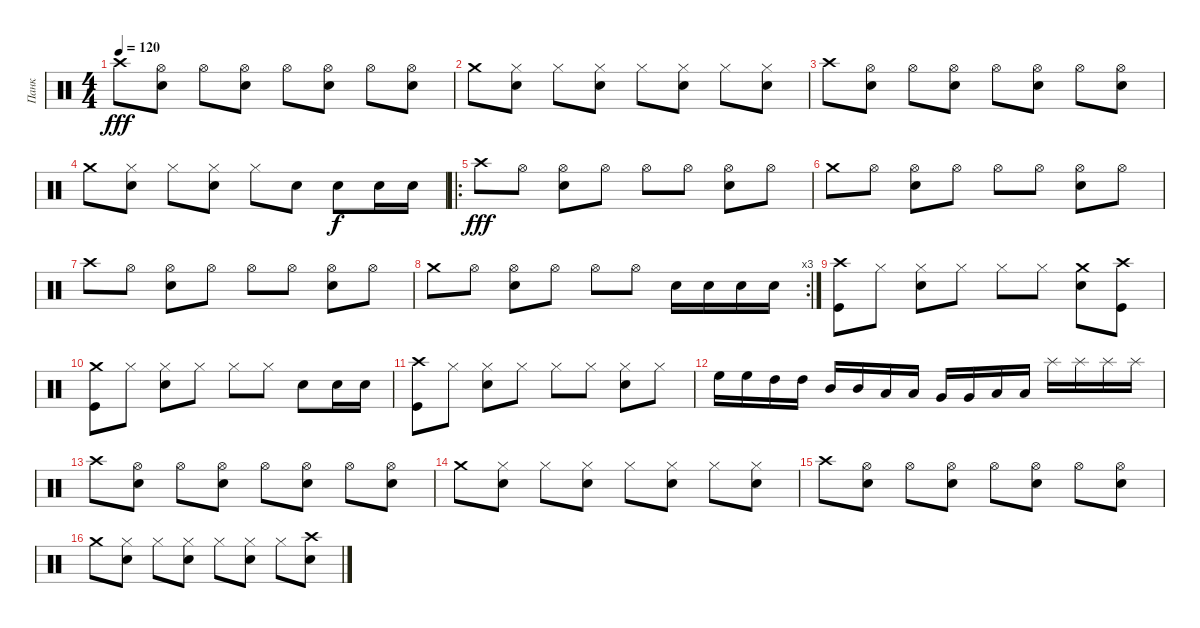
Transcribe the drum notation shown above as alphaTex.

\track ("Панк" "Панк") {instrument percussion}
\staff {score}
\articulation defaults
\ts (4 4)
\tempo 120
\clef neutral
\ks c "Crash high (hit)".8{dy fff}
("Hi-Hat (open)" "Electric Snare (hit)").8 "Hi-Hat (open)".8 ("Hi-Hat (open)" "Electric Snare (hit)").8 "Hi-Hat (open)".8 ("Hi-Hat (open)" "Electric Snare (hit)").8 "Hi-Hat (open)".8 ("Hi-Hat (open)" "Electric Snare (hit)").8 |
"Crash medium (hit)".8 ("Hi-Hat (closed)" "Electric Snare (hit)").8 "Hi-Hat (closed)".8 ("Hi-Hat (closed)" "Electric Snare (hit)").8 "Hi-Hat (closed)".8 ("Hi-Hat (closed)" "Electric Snare (hit)").8 "Hi-Hat (closed)".8 ("Hi-Hat (closed)" "Electric Snare (hit)").8 |
"Crash high (hit)".8 ("Hi-Hat (open)" "Electric Snare (hit)").8 "Hi-Hat (open)".8 ("Hi-Hat (open)" "Electric Snare (hit)").8 "Hi-Hat (open)".8 ("Hi-Hat (open)" "Electric Snare (hit)").8 "Hi-Hat (open)".8 ("Hi-Hat (open)" "Electric Snare (hit)").8 |
"Crash medium (hit)".8 ("Hi-Hat (closed)" "Electric Snare (hit)").8 "Hi-Hat (closed)".8 ("Hi-Hat (closed)" "Electric Snare (hit)").8 "Hi-Hat (closed)".8 "Electric Snare (hit)".8 "Electric Snare (hit)".8{dy f} "Electric Snare (hit)".16 "Electric Snare (hit)".16 |
\ro "Crash high (hit)".8{dy fff} "Hi-Hat (open)".8
("Hi-Hat (open)" "Electric Snare (hit)").8 "Hi-Hat (open)".8 "Hi-Hat (open)".8 "Hi-Hat (open)".8 ("Hi-Hat (open)" "Electric Snare (hit)").8 "Hi-Hat (open)".8 |
"Crash medium (hit)".8 "Hi-Hat (open)".8 ("Hi-Hat (open)" "Electric Snare (hit)").8 "Hi-Hat (open)".8 "Hi-Hat (open)".8 "Hi-Hat (open)".8 ("Hi-Hat (open)" "Electric Snare (hit)").8 "Hi-Hat (open)".8 |
"Crash high (hit)".8 "Hi-Hat (open)".8 ("Hi-Hat (open)" "Electric Snare (hit)").8 "Hi-Hat (open)".8 "Hi-Hat (open)".8 "Hi-Hat (open)".8 ("Hi-Hat (open)" "Electric Snare (hit)").8 "Hi-Hat (open)".8 |
\rc 3 "Crash medium (hit)".8 "Hi-Hat (open)".8
("Hi-Hat (open)" "Electric Snare (hit)").8 "Hi-Hat (open)".8 "Hi-Hat (open)".8 "Hi-Hat (open)".8 "Electric Snare (hit)".16 "Electric Snare (hit)".16 "Electric Snare (hit)".16 "Electric Snare (hit)".16 |
("Crash high (hit)" "Kick (hit)").8 "Hi-Hat (closed)".8 ("Hi-Hat (closed)" "Electric Snare (hit)").8 "Hi-Hat (closed)".8 "Hi-Hat (closed)".8 "Hi-Hat (closed)".8 ("Crash medium (hit)" "Electric Snare (hit)").8 ("Crash high (hit)" "Kick (hit)").8 |
("Crash medium (hit)" "Kick (hit)").8 "Hi-Hat (closed)".8 ("Hi-Hat (closed)" "Electric Snare (hit)").8 "Hi-Hat (closed)".8 "Hi-Hat (closed)".8 "Hi-Hat (closed)".8 "Electric Snare (hit)".8 "Electric Snare (hit)".16 "Electric Snare (hit)".16 |
("Crash high (hit)" "Kick (hit)").8 "Hi-Hat (closed)".8 ("Hi-Hat (closed)" "Electric Snare (hit)").8 "Hi-Hat (closed)".8 "Hi-Hat (closed)".8 "Hi-Hat (closed)".8 ("Hi-Hat (closed)" "Electric Snare (hit)").8 "Hi-Hat (closed)".8 |
"High Floor Tom (hit)".16 "High Floor Tom (hit)".16 "High Tom (hit)".16 "High Tom (hit)".16 "Mid Tom (hit)".16 "Mid Tom (hit)".16 "Low Tom (hit)".16 "Low Tom (hit)".16 "Very Low Tom (hit)".16 "Very Low Tom (hit)".16 "Low Floor Tom (hit)".16 "Low Floor Tom (hit)".16 "Splash (hit)".16 "Splash (hit)".16 "Splash (hit)".16 "Splash (hit)".16 |
"Crash high (hit)".8 ("Hi-Hat (open)" "Electric Snare (hit)").8 "Hi-Hat (open)".8 ("Hi-Hat (open)" "Electric Snare (hit)").8 "Hi-Hat (open)".8 ("Hi-Hat (open)" "Electric Snare (hit)").8 "Hi-Hat (open)".8 ("Hi-Hat (open)" "Electric Snare (hit)").8 |
"Crash medium (hit)".8 ("Hi-Hat (closed)" "Electric Snare (hit)").8 "Hi-Hat (closed)".8 ("Hi-Hat (closed)" "Electric Snare (hit)").8 "Hi-Hat (closed)".8 ("Hi-Hat (closed)" "Electric Snare (hit)").8 "Hi-Hat (closed)".8 ("Hi-Hat (closed)" "Electric Snare (hit)").8 |
"Crash high (hit)".8 ("Hi-Hat (open)" "Electric Snare (hit)").8 "Hi-Hat (open)".8 ("Hi-Hat (open)" "Electric Snare (hit)").8 "Hi-Hat (open)".8 ("Hi-Hat (open)" "Electric Snare (hit)").8 "Hi-Hat (open)".8 ("Hi-Hat (open)" "Electric Snare (hit)").8 |
"Crash medium (hit)".8 ("Hi-Hat (closed)" "Electric Snare (hit)").8 "Hi-Hat (closed)".8 ("Hi-Hat (closed)" "Electric Snare (hit)").8 "Hi-Hat (closed)".8 ("Hi-Hat (closed)" "Electric Snare (hit)").8 "Hi-Hat (closed)".8 ("Crash high (hit)" "Electric Snare (hit)").8
